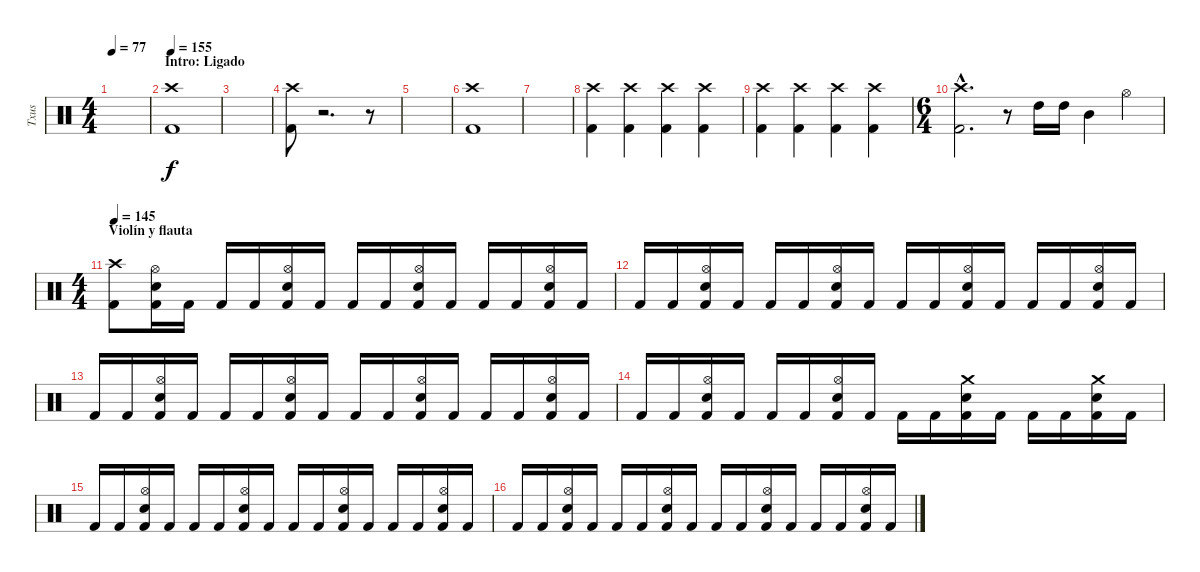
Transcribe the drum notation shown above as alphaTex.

\track ("Txus" "Txus") {instrument percussion}
\staff {score}
\articulation defaults
\ts (4 4)
\tempo 77
\clef neutral
\ks c
|
\section ("" "Intro: Ligado")
\tempo 155
("Kick (hit) 2" "Crash high (hit)").1 |
|
("Kick (hit) 2" "Crash high (hit)").8 r.2{d} r.8 |
|
("Kick (hit) 2" "Crash high (hit)").1 |
|
("Kick (hit) 2" "Crash high (hit)").4 ("Kick (hit) 2" "Crash high (hit)").4 ("Kick (hit) 2" "Crash high (hit)").4 ("Kick (hit) 2" "Crash high (hit)").4 |
("Kick (hit) 2" "Crash high (hit)").4 ("Kick (hit) 2" "Crash high (hit)").4 ("Kick (hit) 2" "Crash high (hit)").4 ("Kick (hit) 2" "Crash high (hit)").4 |
\ts (6 4)
("Kick (hit) 2"{hac} "Crash high (hit)"{hac}).2{d} r.8 "High Tom (hit)".16 "High Tom (hit)".16 "Mid Tom (hit)".4 "Hi-Hat (open)".4{volume 8} |
\ts (4 4)
\section ("" "Violín y flauta")
\tempo 145
("Kick (hit) 2" "Crash high (hit)").8{volume 16} ("Kick (hit) 2" "Electric Snare (hit)" "Hi-Hat (open)").16 "Kick (hit) 2".16 "Kick (hit) 2".16 "Kick (hit) 2".16 ("Kick (hit) 2" "Electric Snare (hit)" "Hi-Hat (open)").16 "Kick (hit) 2".16 "Kick (hit) 2".16 "Kick (hit) 2".16 ("Kick (hit) 2" "Electric Snare (hit)" "Hi-Hat (open)").16 "Kick (hit) 2".16 "Kick (hit) 2".16 "Kick (hit) 2".16 ("Kick (hit) 2" "Electric Snare (hit)" "Hi-Hat (open)").16 "Kick (hit) 2".16 |
"Kick (hit) 2".16 "Kick (hit) 2".16 ("Kick (hit) 2" "Electric Snare (hit)" "Hi-Hat (open)").16 "Kick (hit) 2".16 "Kick (hit) 2".16 "Kick (hit) 2".16 ("Kick (hit) 2" "Electric Snare (hit)" "Hi-Hat (open)").16 "Kick (hit) 2".16 "Kick (hit) 2".16 "Kick (hit) 2".16 ("Kick (hit) 2" "Electric Snare (hit)" "Hi-Hat (open)").16 "Kick (hit) 2".16 "Kick (hit) 2".16 "Kick (hit) 2".16 ("Kick (hit) 2" "Electric Snare (hit)" "Hi-Hat (open)").16 "Kick (hit) 2".16 |
"Kick (hit) 2".16 "Kick (hit) 2".16 ("Kick (hit) 2" "Electric Snare (hit)" "Hi-Hat (open)").16 "Kick (hit) 2".16 "Kick (hit) 2".16 "Kick (hit) 2".16 ("Kick (hit) 2" "Electric Snare (hit)" "Hi-Hat (open)").16 "Kick (hit) 2".16 "Kick (hit) 2".16 "Kick (hit) 2".16 ("Kick (hit) 2" "Electric Snare (hit)" "Hi-Hat (open)").16 "Kick (hit) 2".16 "Kick (hit) 2".16 "Kick (hit) 2".16 ("Kick (hit) 2" "Electric Snare (hit)" "Hi-Hat (open)").16 "Kick (hit) 2".16 |
"Kick (hit) 2".16 "Kick (hit) 2".16 ("Kick (hit) 2" "Electric Snare (hit)" "Hi-Hat (open)").16 "Kick (hit) 2".16 "Kick (hit) 2".16 "Kick (hit) 2".16 ("Kick (hit) 2" "Electric Snare (hit)" "Hi-Hat (open)").16 "Kick (hit) 2".16 "Kick (hit) 2".16 "Kick (hit) 2".16 ("Kick (hit) 2" "Electric Snare (hit)" "Crash medium (hit)").16 "Kick (hit) 2".16 "Kick (hit) 2".16 "Kick (hit) 2".16 ("Kick (hit) 2" "Electric Snare (hit)" "Crash medium (hit)").16 "Kick (hit) 2".16 |
"Kick (hit) 2".16 "Kick (hit) 2".16 ("Kick (hit) 2" "Electric Snare (hit)" "Hi-Hat (open)").16 "Kick (hit) 2".16 "Kick (hit) 2".16 "Kick (hit) 2".16 ("Kick (hit) 2" "Electric Snare (hit)" "Hi-Hat (open)").16 "Kick (hit) 2".16 "Kick (hit) 2".16 "Kick (hit) 2".16 ("Kick (hit) 2" "Electric Snare (hit)" "Hi-Hat (open)").16 "Kick (hit) 2".16 "Kick (hit) 2".16 "Kick (hit) 2".16 ("Kick (hit) 2" "Electric Snare (hit)" "Hi-Hat (open)").16 "Kick (hit) 2".16 |
"Kick (hit) 2".16 "Kick (hit) 2".16 ("Kick (hit) 2" "Electric Snare (hit)" "Hi-Hat (open)").16 "Kick (hit) 2".16 "Kick (hit) 2".16 "Kick (hit) 2".16 ("Kick (hit) 2" "Electric Snare (hit)" "Hi-Hat (open)").16 "Kick (hit) 2".16 "Kick (hit) 2".16 "Kick (hit) 2".16 ("Kick (hit) 2" "Electric Snare (hit)" "Hi-Hat (open)").16 "Kick (hit) 2".16 "Kick (hit) 2".16 "Kick (hit) 2".16 ("Kick (hit) 2" "Electric Snare (hit)" "Hi-Hat (open)").16 "Kick (hit) 2".16
